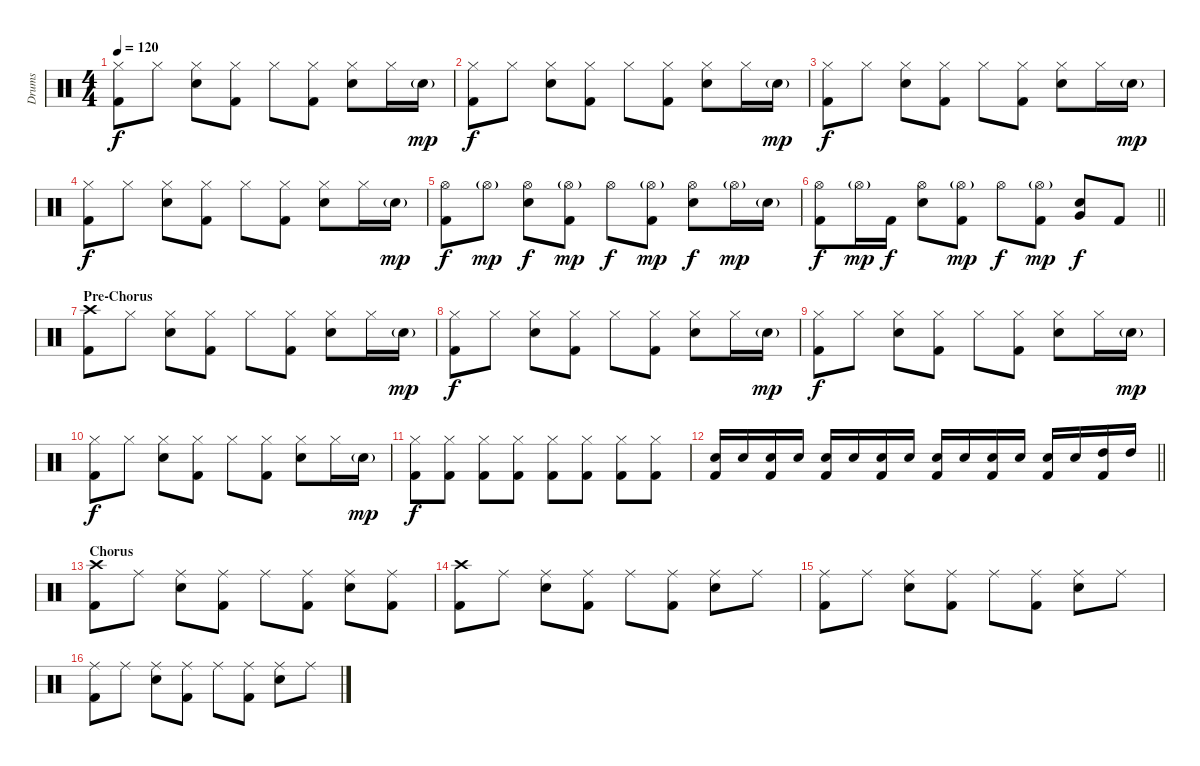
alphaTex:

\track ("Drums" "Drums") {instrument percussion}
\staff {score}
\articulation defaults
\ts (4 4)
\tempo 120
\clef neutral
\ks c
("Kick (hit) 2" "Hi-Hat (closed)").8{dy f} "Hi-Hat (closed)".8 ("Electric Snare (hit)" "Hi-Hat (closed)").8 ("Kick (hit) 2" "Hi-Hat (closed)").8 "Hi-Hat (closed)".8 ("Kick (hit) 2" "Hi-Hat (closed)").8 ("Electric Snare (hit)" "Hi-Hat (closed)").8 "Hi-Hat (closed)".16 "Electric Snare (hit)"{g}.16{dy mp} |
("Kick (hit) 2" "Hi-Hat (closed)").8{dy f} "Hi-Hat (closed)".8 ("Electric Snare (hit)" "Hi-Hat (closed)").8 ("Kick (hit) 2" "Hi-Hat (closed)").8 "Hi-Hat (closed)".8 ("Kick (hit) 2" "Hi-Hat (closed)").8 ("Electric Snare (hit)" "Hi-Hat (closed)").8 "Hi-Hat (closed)".16 "Electric Snare (hit)"{g}.16{dy mp} |
("Kick (hit) 2" "Hi-Hat (closed)").8{dy f} "Hi-Hat (closed)".8 ("Electric Snare (hit)" "Hi-Hat (closed)").8 ("Kick (hit) 2" "Hi-Hat (closed)").8 "Hi-Hat (closed)".8 ("Kick (hit) 2" "Hi-Hat (closed)").8 ("Electric Snare (hit)" "Hi-Hat (closed)").8 "Hi-Hat (closed)".16 "Electric Snare (hit)"{g}.16{dy mp} |
("Kick (hit) 2" "Hi-Hat (closed)").8{dy f} "Hi-Hat (closed)".8 ("Electric Snare (hit)" "Hi-Hat (closed)").8 ("Kick (hit) 2" "Hi-Hat (closed)").8 "Hi-Hat (closed)".8 ("Kick (hit) 2" "Hi-Hat (closed)").8 ("Electric Snare (hit)" "Hi-Hat (closed)").8 "Hi-Hat (closed)".16 "Electric Snare (hit)"{g}.16{dy mp} |
("Kick (hit) 2" "Hi-Hat (open)").8{dy f} "Hi-Hat (open)"{g}.8{dy mp} ("Electric Snare (hit)" "Hi-Hat (open)").8{dy f} ("Kick (hit) 2" "Hi-Hat (open)"{g}).8{dy mp} "Hi-Hat (open)".8{dy f} ("Kick (hit) 2" "Hi-Hat (open)"{g}).8{dy mp} ("Electric Snare (hit)" "Hi-Hat (open)").8{dy f} "Hi-Hat (open)"{g}.16{dy mp} "Electric Snare (hit)"{g}.16 |
\barLineRight lightlight
("Kick (hit) 2" "Hi-Hat (open)").8{dy f} "Hi-Hat (open)"{g}.16{dy mp} "Kick (hit) 2".16{dy f} ("Electric Snare (hit)" "Hi-Hat (open)").8 ("Kick (hit) 2" "Hi-Hat (open)"{g}).8{dy mp} "Hi-Hat (open)".8{dy f} ("Kick (hit) 2" "Hi-Hat (open)"{g}).8{dy mp} ("Very Low Tom (hit)" "Electric Snare (hit)").8{dy f} "Kick (hit) 2".8 |
\section ("" "Pre-Chorus")
("Kick (hit) 2" "Crash high (hit)").8 "Hi-Hat (closed)".8 ("Electric Snare (hit)" "Hi-Hat (closed)").8 ("Kick (hit) 2" "Hi-Hat (closed)").8 "Hi-Hat (closed)".8 ("Kick (hit) 2" "Hi-Hat (closed)").8 ("Electric Snare (hit)" "Hi-Hat (closed)").8 "Hi-Hat (closed)".16 "Electric Snare (hit)"{g}.16{dy mp} |
("Kick (hit) 2" "Hi-Hat (closed)").8{dy f} "Hi-Hat (closed)".8 ("Electric Snare (hit)" "Hi-Hat (closed)").8 ("Kick (hit) 2" "Hi-Hat (closed)").8 "Hi-Hat (closed)".8 ("Kick (hit) 2" "Hi-Hat (closed)").8 ("Electric Snare (hit)" "Hi-Hat (closed)").8 "Hi-Hat (closed)".16 "Electric Snare (hit)"{g}.16{dy mp} |
("Kick (hit) 2" "Hi-Hat (closed)").8{dy f} "Hi-Hat (closed)".8 ("Electric Snare (hit)" "Hi-Hat (closed)").8 ("Kick (hit) 2" "Hi-Hat (closed)").8 "Hi-Hat (closed)".8 ("Kick (hit) 2" "Hi-Hat (closed)").8 ("Electric Snare (hit)" "Hi-Hat (closed)").8 "Hi-Hat (closed)".16 "Electric Snare (hit)"{g}.16{dy mp} |
("Kick (hit) 2" "Hi-Hat (closed)").8{dy f} "Hi-Hat (closed)".8 ("Electric Snare (hit)" "Hi-Hat (closed)").8 ("Kick (hit) 2" "Hi-Hat (closed)").8 "Hi-Hat (closed)".8 ("Kick (hit) 2" "Hi-Hat (closed)").8 ("Electric Snare (hit)" "Hi-Hat (closed)").8 "Hi-Hat (closed)".16 "Electric Snare (hit)"{g}.16{dy mp} |
("Kick (hit) 2" "Hi-Hat (closed)").8{dy f} ("Kick (hit) 2" "Hi-Hat (closed)").8 ("Kick (hit) 2" "Hi-Hat (closed)").8 ("Kick (hit) 2" "Hi-Hat (closed)").8 ("Kick (hit) 2" "Hi-Hat (closed)").8 ("Kick (hit) 2" "Hi-Hat (closed)").8 ("Kick (hit) 2" "Hi-Hat (closed)").8 ("Kick (hit) 2" "Hi-Hat (closed)").8 |
\barLineRight lightlight
("Kick (hit) 2" "Electric Snare (hit)").16 "Electric Snare (hit)".16 ("Kick (hit) 2" "Electric Snare (hit)").16 "Electric Snare (hit)".16 ("Kick (hit) 2" "Electric Snare (hit)").16 "Electric Snare (hit)".16 ("Kick (hit) 2" "Electric Snare (hit)").16 "Electric Snare (hit)".16 ("Kick (hit) 2" "Electric Snare (hit)").16 "Electric Snare (hit)".16 ("Kick (hit) 2" "Electric Snare (hit)").16 "Electric Snare (hit)".16 ("Kick (hit) 2" "Electric Snare (hit)").16 "Electric Snare (hit)".16 ("Kick (hit) 2" "High Tom (hit)").16 "High Tom (hit)".16 |
\section ("" "Chorus")
("Kick (hit) 2" "Crash high (hit)").8 "Ride (middle)".8 ("Electric Snare (hit)" "Ride (middle)").8 ("Kick (hit) 2" "Ride (middle)").8 "Ride (middle)".8 ("Kick (hit) 2" "Ride (middle)").8 ("Electric Snare (hit)" "Ride (middle)").8 ("Kick (hit) 2" "Ride (middle)").8 |
("Kick (hit) 2" "Crash high (hit)").8 "Ride (middle)".8 ("Electric Snare (hit)" "Ride (middle)").8 ("Kick (hit) 2" "Ride (middle)").8 "Ride (middle)".8 ("Kick (hit) 2" "Ride (middle)").8 ("Electric Snare (hit)" "Ride (middle)").8 "Ride (middle)".8 |
("Kick (hit) 2" "Ride (middle)").8 "Ride (middle)".8 ("Electric Snare (hit)" "Ride (middle)").8 ("Kick (hit) 2" "Ride (middle)").8 "Ride (middle)".8 ("Kick (hit) 2" "Ride (middle)").8 ("Electric Snare (hit)" "Ride (middle)").8 "Ride (middle)".8 |
("Kick (hit) 2" "Ride (middle)").8 "Ride (middle)".8 ("Electric Snare (hit)" "Ride (middle)").8 ("Kick (hit) 2" "Ride (middle)").8 "Ride (middle)".8 ("Kick (hit) 2" "Ride (middle)").8 ("Electric Snare (hit)" "Ride (middle)").8 "Ride (middle)".8
